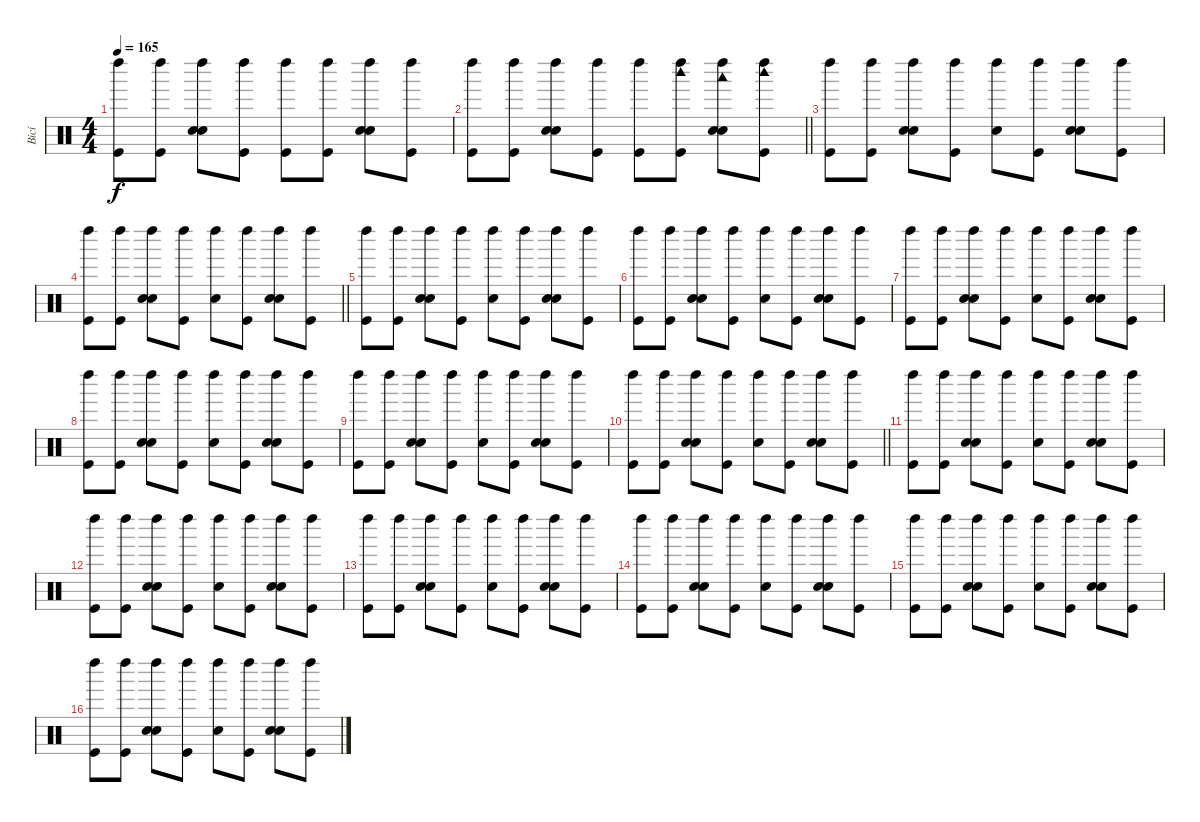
\track ("Bicí" "Bicí") {instrument percussion}
\staff {score}
\articulation defaults
\ts (4 4)
\tempo 165
\clef neutral
\ks c
("Left Maraca (hit)" "Kick (hit)").8{dy f} ("Left Maraca (hit)" "Kick (hit)").8 ("Left Maraca (hit)" "Hand Clap (hit)" "Electric Snare (hit)").8 ("Left Maraca (hit)" "Kick (hit)").8 ("Left Maraca (hit)" "Kick (hit)").8 ("Left Maraca (hit)" "Kick (hit)").8 ("Left Maraca (hit)" "Hand Clap (hit)" "Electric Snare (hit)").8 ("Left Maraca (hit)" "Kick (hit)").8 |
\barLineRight lightlight
("Left Maraca (hit)" "Kick (hit)").8 ("Left Maraca (hit)" "Kick (hit)").8 ("Left Maraca (hit)" "Hand Clap (hit)" "Electric Snare (hit)").8 ("Left Maraca (hit)" "Kick (hit)").8 ("Left Maraca (hit)" "Kick (hit)").8 ("Woodblock high (hit)" "Left Maraca (hit)" "Kick (hit)").8 ("Woodblock low (hit)" "Left Maraca (hit)" "Hand Clap (hit)" "Electric Snare (hit)").8 ("Woodblock high (hit)" "Left Maraca (hit)" "Kick (hit)").8 |
("Left Maraca (hit)" "Kick (hit)").8 ("Left Maraca (hit)" "Kick (hit)").8 ("Left Maraca (hit)" "Hand Clap (hit)" "Electric Snare (hit)").8 ("Left Maraca (hit)" "Kick (hit)").8 ("Left Maraca (hit)" "Snare (hit)").8 ("Left Maraca (hit)" "Kick (hit)").8 ("Left Maraca (hit)" "Hand Clap (hit)" "Electric Snare (hit)").8 ("Left Maraca (hit)" "Kick (hit)").8 |
\barLineRight lightlight
("Left Maraca (hit)" "Kick (hit)").8 ("Left Maraca (hit)" "Kick (hit)").8 ("Left Maraca (hit)" "Hand Clap (hit)" "Electric Snare (hit)").8 ("Left Maraca (hit)" "Kick (hit)").8 ("Left Maraca (hit)" "Snare (hit)").8 ("Left Maraca (hit)" "Kick (hit)").8 ("Left Maraca (hit)" "Hand Clap (hit)" "Electric Snare (hit)").8 ("Left Maraca (hit)" "Kick (hit)").8 |
("Left Maraca (hit)" "Kick (hit)").8 ("Left Maraca (hit)" "Kick (hit)").8 ("Left Maraca (hit)" "Hand Clap (hit)" "Electric Snare (hit)").8 ("Left Maraca (hit)" "Kick (hit)").8 ("Left Maraca (hit)" "Snare (hit)").8 ("Left Maraca (hit)" "Kick (hit)").8 ("Left Maraca (hit)" "Hand Clap (hit)" "Electric Snare (hit)").8 ("Left Maraca (hit)" "Kick (hit)").8 |
("Left Maraca (hit)" "Kick (hit)").8 ("Left Maraca (hit)" "Kick (hit)").8 ("Left Maraca (hit)" "Hand Clap (hit)" "Electric Snare (hit)").8 ("Left Maraca (hit)" "Kick (hit)").8 ("Left Maraca (hit)" "Snare (hit)").8 ("Left Maraca (hit)" "Kick (hit)").8 ("Left Maraca (hit)" "Hand Clap (hit)" "Electric Snare (hit)").8 ("Left Maraca (hit)" "Kick (hit)").8 |
("Left Maraca (hit)" "Kick (hit)").8 ("Left Maraca (hit)" "Kick (hit)").8 ("Left Maraca (hit)" "Hand Clap (hit)" "Electric Snare (hit)").8 ("Left Maraca (hit)" "Kick (hit)").8 ("Left Maraca (hit)" "Snare (hit)").8 ("Left Maraca (hit)" "Kick (hit)").8 ("Left Maraca (hit)" "Hand Clap (hit)" "Electric Snare (hit)").8 ("Left Maraca (hit)" "Kick (hit)").8 |
("Left Maraca (hit)" "Kick (hit)").8 ("Left Maraca (hit)" "Kick (hit)").8 ("Left Maraca (hit)" "Hand Clap (hit)" "Electric Snare (hit)").8 ("Left Maraca (hit)" "Kick (hit)").8 ("Left Maraca (hit)" "Snare (hit)").8 ("Left Maraca (hit)" "Kick (hit)").8 ("Left Maraca (hit)" "Hand Clap (hit)" "Electric Snare (hit)").8 ("Left Maraca (hit)" "Kick (hit)").8 |
("Left Maraca (hit)" "Kick (hit)").8 ("Left Maraca (hit)" "Kick (hit)").8 ("Left Maraca (hit)" "Hand Clap (hit)" "Electric Snare (hit)").8 ("Left Maraca (hit)" "Kick (hit)").8 ("Left Maraca (hit)" "Snare (hit)").8 ("Left Maraca (hit)" "Kick (hit)").8 ("Left Maraca (hit)" "Hand Clap (hit)" "Electric Snare (hit)").8 ("Left Maraca (hit)" "Kick (hit)").8 |
\barLineRight lightlight
("Left Maraca (hit)" "Kick (hit)").8 ("Left Maraca (hit)" "Kick (hit)").8 ("Left Maraca (hit)" "Hand Clap (hit)" "Electric Snare (hit)").8 ("Left Maraca (hit)" "Kick (hit)").8 ("Left Maraca (hit)" "Snare (hit)").8 ("Left Maraca (hit)" "Kick (hit)").8 ("Left Maraca (hit)" "Hand Clap (hit)" "Electric Snare (hit)").8 ("Left Maraca (hit)" "Kick (hit)").8 |
("Left Maraca (hit)" "Kick (hit)").8 ("Left Maraca (hit)" "Kick (hit)").8 ("Left Maraca (hit)" "Hand Clap (hit)" "Electric Snare (hit)").8 ("Left Maraca (hit)" "Kick (hit)").8 ("Left Maraca (hit)" "Snare (hit)").8 ("Left Maraca (hit)" "Kick (hit)").8 ("Left Maraca (hit)" "Hand Clap (hit)" "Electric Snare (hit)").8 ("Left Maraca (hit)" "Kick (hit)").8 |
("Left Maraca (hit)" "Kick (hit)").8 ("Left Maraca (hit)" "Kick (hit)").8 ("Left Maraca (hit)" "Hand Clap (hit)" "Electric Snare (hit)").8 ("Left Maraca (hit)" "Kick (hit)").8 ("Left Maraca (hit)" "Snare (hit)").8 ("Left Maraca (hit)" "Kick (hit)").8 ("Left Maraca (hit)" "Hand Clap (hit)" "Electric Snare (hit)").8 ("Left Maraca (hit)" "Kick (hit)").8 |
("Left Maraca (hit)" "Kick (hit)").8 ("Left Maraca (hit)" "Kick (hit)").8 ("Left Maraca (hit)" "Hand Clap (hit)" "Electric Snare (hit)").8 ("Left Maraca (hit)" "Kick (hit)").8 ("Left Maraca (hit)" "Snare (hit)").8 ("Left Maraca (hit)" "Kick (hit)").8 ("Left Maraca (hit)" "Hand Clap (hit)" "Electric Snare (hit)").8 ("Left Maraca (hit)" "Kick (hit)").8 |
("Left Maraca (hit)" "Kick (hit)").8 ("Left Maraca (hit)" "Kick (hit)").8 ("Left Maraca (hit)" "Hand Clap (hit)" "Electric Snare (hit)").8 ("Left Maraca (hit)" "Kick (hit)").8 ("Left Maraca (hit)" "Snare (hit)").8 ("Left Maraca (hit)" "Kick (hit)").8 ("Left Maraca (hit)" "Hand Clap (hit)" "Electric Snare (hit)").8 ("Left Maraca (hit)" "Kick (hit)").8 |
("Left Maraca (hit)" "Kick (hit)").8 ("Left Maraca (hit)" "Kick (hit)").8 ("Left Maraca (hit)" "Hand Clap (hit)" "Electric Snare (hit)").8 ("Left Maraca (hit)" "Kick (hit)").8 ("Left Maraca (hit)" "Snare (hit)").8 ("Left Maraca (hit)" "Kick (hit)").8 ("Left Maraca (hit)" "Hand Clap (hit)" "Electric Snare (hit)").8 ("Left Maraca (hit)" "Kick (hit)").8 |
("Left Maraca (hit)" "Kick (hit)").8 ("Left Maraca (hit)" "Kick (hit)").8 ("Left Maraca (hit)" "Hand Clap (hit)" "Electric Snare (hit)").8 ("Left Maraca (hit)" "Kick (hit)").8 ("Left Maraca (hit)" "Snare (hit)").8 ("Left Maraca (hit)" "Kick (hit)").8 ("Left Maraca (hit)" "Hand Clap (hit)" "Electric Snare (hit)").8 ("Left Maraca (hit)" "Kick (hit)").8
